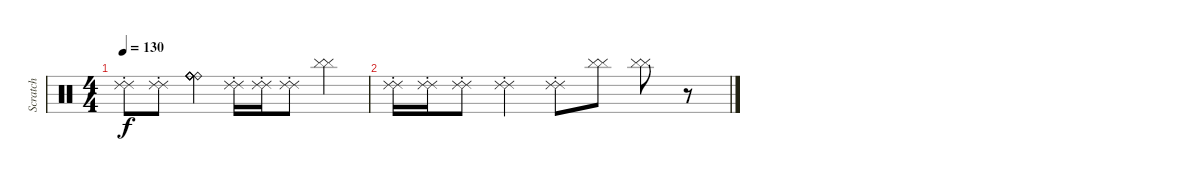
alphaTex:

\track ("Scratch" "Scratch") {instrument percussion}
\staff {score}
\articulation defaults
\ts (4 4)
\tempo 130
\clef neutral
\ks c
("Ride (choke) 2" "Ride (choke) 2").8{dy f} ("Ride (choke) 2" "Ride (choke) 2").8 ("Ride (bell)" "Ride (bell)" "Ride (bell)" "Ride (bell)" "Ride (bell)").4 ("Ride (choke) 2" "Ride (choke) 2").16 ("Ride (choke) 2" "Ride (choke) 2").16 ("Ride (choke) 2" "Ride (choke) 2").8 ("Cymbal (hit)" "Cymbal (hit)").4 |
("Ride (choke) 2" "Ride (choke) 2").16 ("Ride (choke) 2" "Ride (choke) 2").16 ("Ride (choke) 2" "Ride (choke) 2").8 ("Ride (choke) 2" "Ride (choke) 2").4 ("Ride (choke) 2" "Ride (choke) 2").8 ("Cymbal (hit)" "Cymbal (hit)").8 ("Cymbal (hit)" "Cymbal (hit)").8 r.8
